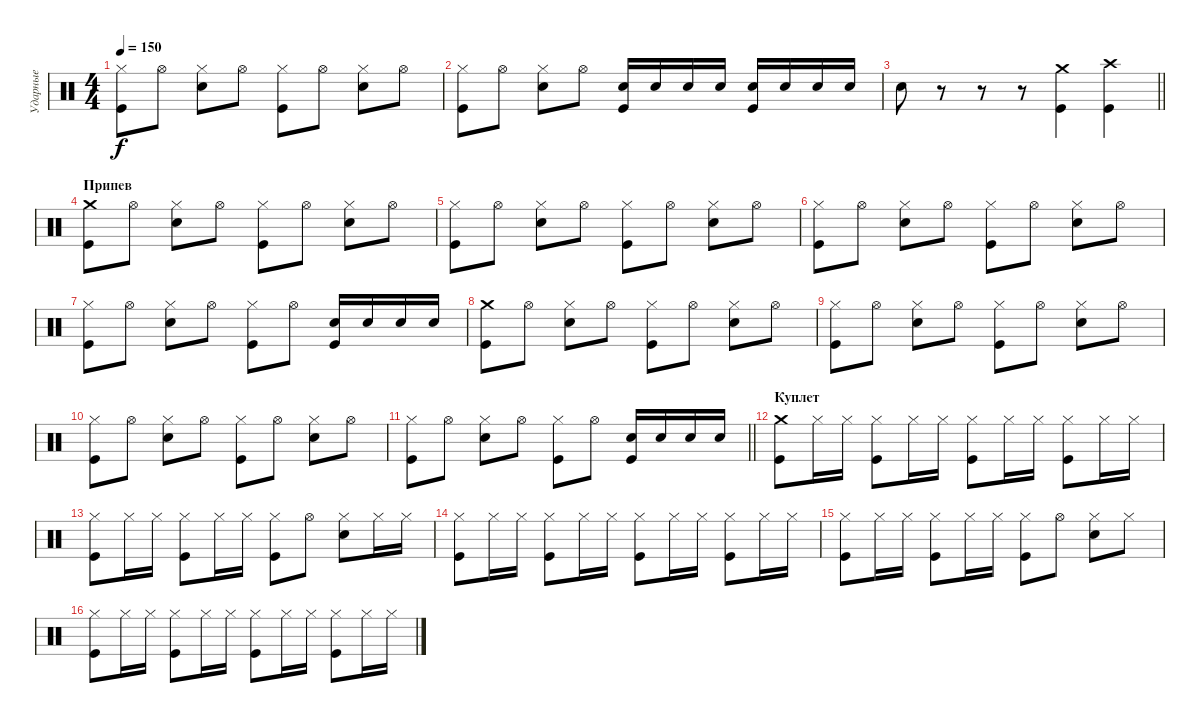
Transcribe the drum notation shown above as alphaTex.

\track ("Ударные" "Ударные") {instrument percussion}
\staff {score}
\articulation defaults
\ts (4 4)
\tempo 150
\clef neutral
\ks c
("Hi-Hat (closed)" "Kick (hit)").8{dy f} "Hi-Hat (open)".8 ("Hi-Hat (closed)" "Electric Snare (hit)").8 "Hi-Hat (open)".8 ("Hi-Hat (closed)" "Kick (hit)").8 "Hi-Hat (open)".8 ("Hi-Hat (closed)" "Electric Snare (hit)").8 "Hi-Hat (open)".8 |
("Hi-Hat (closed)" "Kick (hit)").8 "Hi-Hat (open)".8 ("Hi-Hat (closed)" "Electric Snare (hit)").8 "Hi-Hat (open)".8 ("Electric Snare (hit)" "Kick (hit)").16 "Electric Snare (hit)".16 "Electric Snare (hit)".16 "Electric Snare (hit)".16 ("Electric Snare (hit)" "Kick (hit)").16 "Electric Snare (hit)".16 "Electric Snare (hit)".16 "Electric Snare (hit)".16 |
\barLineRight lightlight "Electric Snare (hit)".8
r.8 r.8 r.8 ("Crash medium (hit)" "Kick (hit)").4 ("Crash high (hit)" "Kick (hit)").4 |
\section ("" "Припев")
("Crash medium (hit)" "Kick (hit)").8 "Hi-Hat (open)".8 ("Hi-Hat (closed)" "Electric Snare (hit)").8 "Hi-Hat (open)".8 ("Hi-Hat (closed)" "Kick (hit)").8 "Hi-Hat (open)".8 ("Hi-Hat (closed)" "Electric Snare (hit)").8 "Hi-Hat (open)".8 |
("Hi-Hat (closed)" "Kick (hit)").8 "Hi-Hat (open)".8 ("Hi-Hat (closed)" "Electric Snare (hit)").8 "Hi-Hat (open)".8 ("Hi-Hat (closed)" "Kick (hit)").8 "Hi-Hat (open)".8 ("Hi-Hat (closed)" "Electric Snare (hit)").8 "Hi-Hat (open)".8 |
("Hi-Hat (closed)" "Kick (hit)").8 "Hi-Hat (open)".8 ("Hi-Hat (closed)" "Electric Snare (hit)").8 "Hi-Hat (open)".8 ("Hi-Hat (closed)" "Kick (hit)").8 "Hi-Hat (open)".8 ("Hi-Hat (closed)" "Electric Snare (hit)").8 "Hi-Hat (open)".8 |
("Hi-Hat (closed)" "Kick (hit)").8 "Hi-Hat (open)".8 ("Hi-Hat (closed)" "Electric Snare (hit)").8 "Hi-Hat (open)".8 ("Hi-Hat (closed)" "Kick (hit)").8 "Hi-Hat (open)".8 ("Electric Snare (hit)" "Kick (hit)").16 "Electric Snare (hit)".16 "Electric Snare (hit)".16 "Electric Snare (hit)".16 |
("Crash medium (hit)" "Kick (hit)").8 "Hi-Hat (open)".8 ("Hi-Hat (closed)" "Electric Snare (hit)").8 "Hi-Hat (open)".8 ("Hi-Hat (closed)" "Kick (hit)").8 "Hi-Hat (open)".8 ("Hi-Hat (closed)" "Electric Snare (hit)").8 "Hi-Hat (open)".8 |
("Hi-Hat (closed)" "Kick (hit)").8 "Hi-Hat (open)".8 ("Hi-Hat (closed)" "Electric Snare (hit)").8 "Hi-Hat (open)".8 ("Hi-Hat (closed)" "Kick (hit)").8 "Hi-Hat (open)".8 ("Hi-Hat (closed)" "Electric Snare (hit)").8 "Hi-Hat (open)".8 |
("Hi-Hat (closed)" "Kick (hit)").8 "Hi-Hat (open)".8 ("Hi-Hat (closed)" "Electric Snare (hit)").8 "Hi-Hat (open)".8 ("Hi-Hat (closed)" "Kick (hit)").8 "Hi-Hat (open)".8 ("Hi-Hat (closed)" "Electric Snare (hit)").8 "Hi-Hat (open)".8 |
\barLineRight lightlight
("Hi-Hat (closed)" "Kick (hit)").8 "Hi-Hat (open)".8 ("Hi-Hat (closed)" "Electric Snare (hit)").8 "Hi-Hat (open)".8 ("Hi-Hat (closed)" "Kick (hit)").8 "Hi-Hat (open)".8 ("Electric Snare (hit)" "Kick (hit)").16 "Electric Snare (hit)".16 "Electric Snare (hit)".16 "Electric Snare (hit)".16 |
\section ("" "Куплет")
("Crash medium (hit)" "Kick (hit)").8 "Hi-Hat (closed)".16 "Hi-Hat (closed)".16 ("Hi-Hat (closed)" "Kick (hit)").8 "Hi-Hat (closed)".16 "Hi-Hat (closed)".16 ("Hi-Hat (closed)" "Kick (hit)").8 "Hi-Hat (closed)".16 "Hi-Hat (closed)".16 ("Hi-Hat (closed)" "Kick (hit)").8 "Hi-Hat (closed)".16 "Hi-Hat (closed)".16 |
("Hi-Hat (closed)" "Kick (hit)").8 "Hi-Hat (closed)".16 "Hi-Hat (closed)".16 ("Hi-Hat (closed)" "Kick (hit)").8 "Hi-Hat (closed)".16 "Hi-Hat (closed)".16 ("Hi-Hat (closed)" "Kick (hit)").8 "Hi-Hat (open)".8 ("Hi-Hat (closed)" "Electric Snare (hit)").8 "Hi-Hat (closed)".16 "Hi-Hat (closed)".16 |
("Hi-Hat (closed)" "Kick (hit)").8 "Hi-Hat (closed)".16 "Hi-Hat (closed)".16 ("Hi-Hat (closed)" "Kick (hit)").8 "Hi-Hat (closed)".16 "Hi-Hat (closed)".16 ("Hi-Hat (closed)" "Kick (hit)").8 "Hi-Hat (closed)".16 "Hi-Hat (closed)".16 ("Hi-Hat (closed)" "Kick (hit)").8 "Hi-Hat (closed)".16 "Hi-Hat (closed)".16 |
("Hi-Hat (closed)" "Kick (hit)").8 "Hi-Hat (closed)".16 "Hi-Hat (closed)".16 ("Hi-Hat (closed)" "Kick (hit)").8 "Hi-Hat (closed)".16 "Hi-Hat (closed)".16 ("Hi-Hat (closed)" "Kick (hit)").8 "Hi-Hat (open)".8 ("Hi-Hat (closed)" "Electric Snare (hit)").8 "Hi-Hat (closed)".8 |
("Hi-Hat (closed)" "Kick (hit)").8 "Hi-Hat (closed)".16 "Hi-Hat (closed)".16 ("Hi-Hat (closed)" "Kick (hit)").8 "Hi-Hat (closed)".16 "Hi-Hat (closed)".16 ("Hi-Hat (closed)" "Kick (hit)").8 "Hi-Hat (closed)".16 "Hi-Hat (closed)".16 ("Hi-Hat (closed)" "Kick (hit)").8 "Hi-Hat (closed)".16 "Hi-Hat (closed)".16
